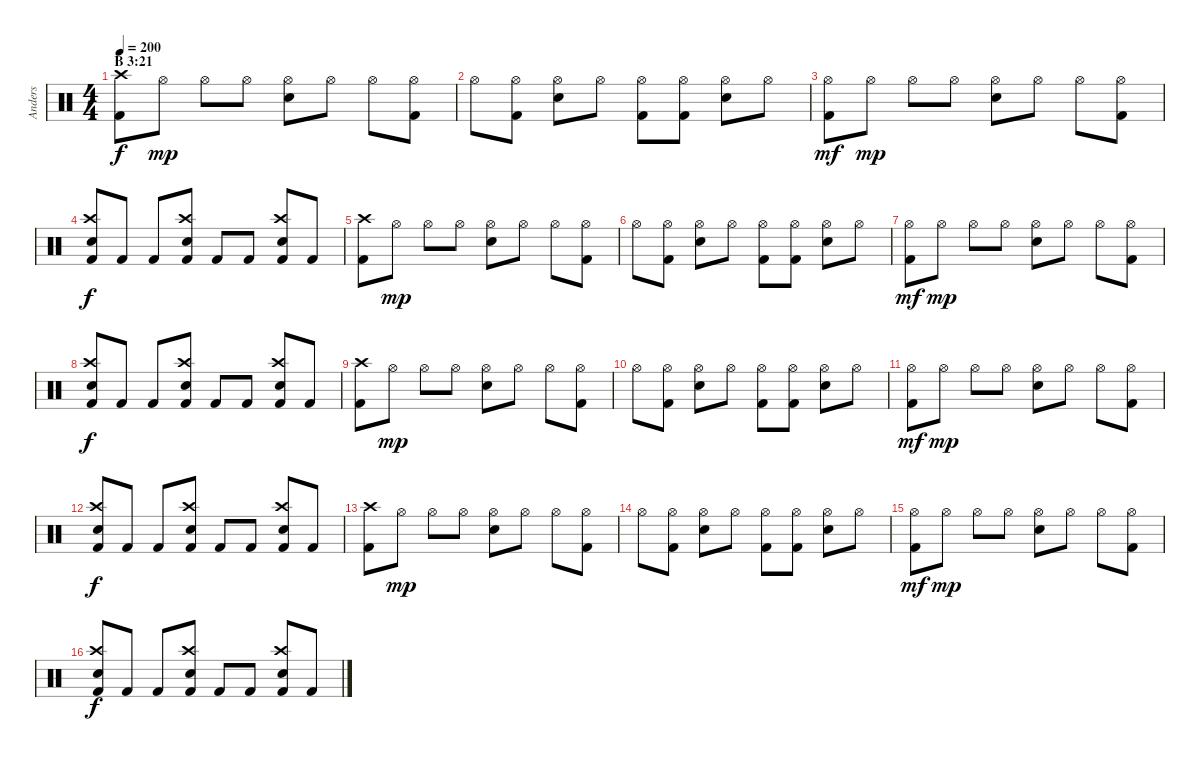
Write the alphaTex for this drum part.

\track ("Anders" "Anders") {instrument percussion}
\staff {score}
\articulation defaults
\ts (4 4)
\section ("" "B 3:21")
\tempo 200
\clef neutral
\ks c
("Kick (hit) 2" "Crash high (hit)").8{dy f} "Hi-Hat (open)".8{dy mp} "Hi-Hat (open)".8 "Hi-Hat (open)".8 ("Electric Snare (hit)" "Hi-Hat (open)").8 "Hi-Hat (open)".8 "Hi-Hat (open)".8 ("Kick (hit) 2" "Hi-Hat (open)").8 |
"Hi-Hat (open)".8 ("Kick (hit) 2" "Hi-Hat (open)").8 ("Electric Snare (hit)" "Hi-Hat (open)").8 "Hi-Hat (open)".8 ("Kick (hit) 2" "Hi-Hat (open)").8 ("Kick (hit) 2" "Hi-Hat (open)").8 ("Electric Snare (hit)" "Hi-Hat (open)").8 "Hi-Hat (open)".8 |
("Kick (hit) 2" "Hi-Hat (open)").8{dy mf} "Hi-Hat (open)".8{dy mp} "Hi-Hat (open)".8 "Hi-Hat (open)".8 ("Electric Snare (hit)" "Hi-Hat (open)").8 "Hi-Hat (open)".8 "Hi-Hat (open)".8 ("Kick (hit) 2" "Hi-Hat (open)").8 |
("Kick (hit) 2" "Electric Snare (hit)" "Crash high (hit)").8{dy f} "Kick (hit) 2".8 "Kick (hit) 2".8 ("Kick (hit) 2" "Electric Snare (hit)" "Crash high (hit)").8 "Kick (hit) 2".8 "Kick (hit) 2".8 ("Kick (hit) 2" "Electric Snare (hit)" "Crash high (hit)").8 "Kick (hit) 2".8 |
("Kick (hit) 2" "Crash high (hit)").8 "Hi-Hat (open)".8{dy mp} "Hi-Hat (open)".8 "Hi-Hat (open)".8 ("Electric Snare (hit)" "Hi-Hat (open)").8 "Hi-Hat (open)".8 "Hi-Hat (open)".8 ("Kick (hit) 2" "Hi-Hat (open)").8 |
"Hi-Hat (open)".8 ("Kick (hit) 2" "Hi-Hat (open)").8 ("Electric Snare (hit)" "Hi-Hat (open)").8 "Hi-Hat (open)".8 ("Kick (hit) 2" "Hi-Hat (open)").8 ("Kick (hit) 2" "Hi-Hat (open)").8 ("Electric Snare (hit)" "Hi-Hat (open)").8 "Hi-Hat (open)".8 |
("Kick (hit) 2" "Hi-Hat (open)").8{dy mf} "Hi-Hat (open)".8{dy mp} "Hi-Hat (open)".8 "Hi-Hat (open)".8 ("Electric Snare (hit)" "Hi-Hat (open)").8 "Hi-Hat (open)".8 "Hi-Hat (open)".8 ("Kick (hit) 2" "Hi-Hat (open)").8 |
("Kick (hit) 2" "Electric Snare (hit)" "Crash high (hit)").8{dy f} "Kick (hit) 2".8 "Kick (hit) 2".8 ("Kick (hit) 2" "Electric Snare (hit)" "Crash high (hit)").8 "Kick (hit) 2".8 "Kick (hit) 2".8 ("Kick (hit) 2" "Electric Snare (hit)" "Crash high (hit)").8 "Kick (hit) 2".8 |
("Kick (hit) 2" "Crash high (hit)").8 "Hi-Hat (open)".8{dy mp} "Hi-Hat (open)".8 "Hi-Hat (open)".8 ("Electric Snare (hit)" "Hi-Hat (open)").8 "Hi-Hat (open)".8 "Hi-Hat (open)".8 ("Kick (hit) 2" "Hi-Hat (open)").8 |
"Hi-Hat (open)".8 ("Kick (hit) 2" "Hi-Hat (open)").8 ("Electric Snare (hit)" "Hi-Hat (open)").8 "Hi-Hat (open)".8 ("Kick (hit) 2" "Hi-Hat (open)").8 ("Kick (hit) 2" "Hi-Hat (open)").8 ("Electric Snare (hit)" "Hi-Hat (open)").8 "Hi-Hat (open)".8 |
("Kick (hit) 2" "Hi-Hat (open)").8{dy mf} "Hi-Hat (open)".8{dy mp} "Hi-Hat (open)".8 "Hi-Hat (open)".8 ("Electric Snare (hit)" "Hi-Hat (open)").8 "Hi-Hat (open)".8 "Hi-Hat (open)".8 ("Kick (hit) 2" "Hi-Hat (open)").8 |
("Kick (hit) 2" "Electric Snare (hit)" "Crash high (hit)").8{dy f} "Kick (hit) 2".8 "Kick (hit) 2".8 ("Kick (hit) 2" "Electric Snare (hit)" "Crash high (hit)").8 "Kick (hit) 2".8 "Kick (hit) 2".8 ("Kick (hit) 2" "Electric Snare (hit)" "Crash high (hit)").8 "Kick (hit) 2".8 |
("Kick (hit) 2" "Crash high (hit)").8 "Hi-Hat (open)".8{dy mp} "Hi-Hat (open)".8 "Hi-Hat (open)".8 ("Electric Snare (hit)" "Hi-Hat (open)").8 "Hi-Hat (open)".8 "Hi-Hat (open)".8 ("Kick (hit) 2" "Hi-Hat (open)").8 |
"Hi-Hat (open)".8 ("Kick (hit) 2" "Hi-Hat (open)").8 ("Electric Snare (hit)" "Hi-Hat (open)").8 "Hi-Hat (open)".8 ("Kick (hit) 2" "Hi-Hat (open)").8 ("Kick (hit) 2" "Hi-Hat (open)").8 ("Electric Snare (hit)" "Hi-Hat (open)").8 "Hi-Hat (open)".8 |
("Kick (hit) 2" "Hi-Hat (open)").8{dy mf} "Hi-Hat (open)".8{dy mp} "Hi-Hat (open)".8 "Hi-Hat (open)".8 ("Electric Snare (hit)" "Hi-Hat (open)").8 "Hi-Hat (open)".8 "Hi-Hat (open)".8 ("Kick (hit) 2" "Hi-Hat (open)").8 |
("Kick (hit) 2" "Electric Snare (hit)" "Crash high (hit)").8{dy f} "Kick (hit) 2".8 "Kick (hit) 2".8 ("Kick (hit) 2" "Electric Snare (hit)" "Crash high (hit)").8 "Kick (hit) 2".8 "Kick (hit) 2".8 ("Kick (hit) 2" "Electric Snare (hit)" "Crash high (hit)").8 "Kick (hit) 2".8
